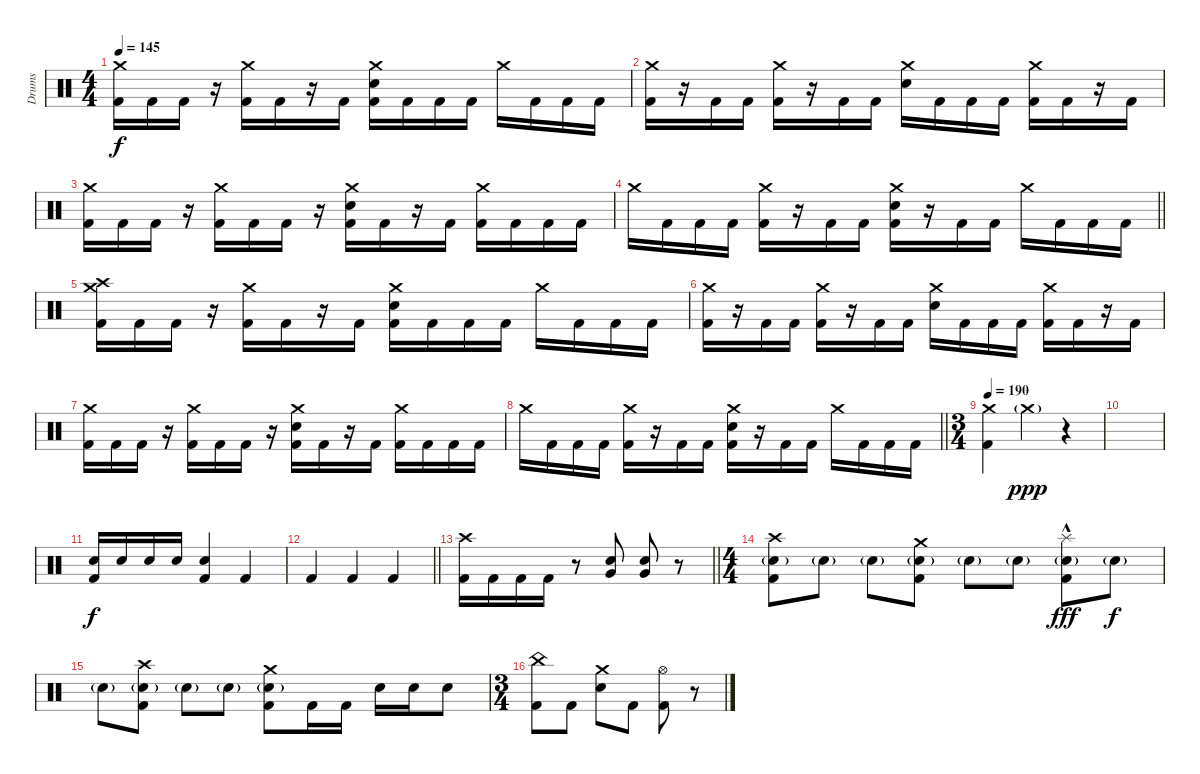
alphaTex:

\track ("Drums" "Drums") {instrument percussion}
\staff {score}
\articulation defaults
\ts (4 4)
\tempo 145
\clef neutral
\ks c
("Crash medium (hit)" "Kick (hit) 2").16{dy f} "Kick (hit) 2".16 "Kick (hit) 2".16 r.16 ("Crash medium (hit)" "Kick (hit) 2").16 "Kick (hit) 2".16 r.16 "Kick (hit) 2".16 ("Crash medium (hit)" "Electric Snare (hit)" "Kick (hit) 2").16 "Kick (hit) 2".16 "Kick (hit) 2".16 "Kick (hit) 2".16 "Crash medium (hit)".16 "Kick (hit) 2".16 "Kick (hit) 2".16 "Kick (hit) 2".16 |
("Crash medium (hit)" "Kick (hit) 2").16 r.16 "Kick (hit) 2".16 "Kick (hit) 2".16 ("Crash medium (hit)" "Kick (hit) 2").16 r.16 "Kick (hit) 2".16 "Kick (hit) 2".16 ("Crash medium (hit)" "Electric Snare (hit)").16 "Kick (hit) 2".16 "Kick (hit) 2".16 "Kick (hit) 2".16 ("Crash medium (hit)" "Kick (hit) 2").16 "Kick (hit) 2".16 r.16 "Kick (hit) 2".16 |
("Crash medium (hit)" "Kick (hit) 2").16 "Kick (hit) 2".16 "Kick (hit) 2".16 r.16 ("Crash medium (hit)" "Kick (hit) 2").16 "Kick (hit) 2".16 "Kick (hit) 2".16 r.16 ("Crash medium (hit)" "Electric Snare (hit)" "Kick (hit) 2").16 "Kick (hit) 2".16 r.16 "Kick (hit) 2".16 ("Crash medium (hit)" "Kick (hit) 2").16 "Kick (hit) 2".16 "Kick (hit) 2".16 "Kick (hit) 2".16 |
\barLineRight lightlight "Crash medium (hit)".16 "Kick (hit) 2".16 "Kick (hit) 2".16 "Kick (hit) 2".16
("Crash medium (hit)" "Kick (hit) 2").16 r.16 "Kick (hit) 2".16 "Kick (hit) 2".16 ("Crash medium (hit)" "Electric Snare (hit)" "Kick (hit) 2").16 r.16 "Kick (hit) 2".16 "Kick (hit) 2".16 "Crash medium (hit)".16 "Kick (hit) 2".16 "Kick (hit) 2".16 "Kick (hit) 2".16 |
("Crash medium (hit)" "Crash high (hit)" "Kick (hit) 2").16 "Kick (hit) 2".16 "Kick (hit) 2".16 r.16 ("Crash medium (hit)" "Kick (hit) 2").16 "Kick (hit) 2".16 r.16 "Kick (hit) 2".16 ("Crash medium (hit)" "Electric Snare (hit)" "Kick (hit) 2").16 "Kick (hit) 2".16 "Kick (hit) 2".16 "Kick (hit) 2".16 "Crash medium (hit)".16 "Kick (hit) 2".16 "Kick (hit) 2".16 "Kick (hit) 2".16 |
("Crash medium (hit)" "Kick (hit) 2").16 r.16 "Kick (hit) 2".16 "Kick (hit) 2".16 ("Crash medium (hit)" "Kick (hit) 2").16 r.16 "Kick (hit) 2".16 "Kick (hit) 2".16 ("Crash medium (hit)" "Electric Snare (hit)").16 "Kick (hit) 2".16 "Kick (hit) 2".16 "Kick (hit) 2".16 ("Crash medium (hit)" "Kick (hit) 2").16 "Kick (hit) 2".16 r.16 "Kick (hit) 2".16 |
("Crash medium (hit)" "Kick (hit) 2").16 "Kick (hit) 2".16 "Kick (hit) 2".16 r.16 ("Crash medium (hit)" "Kick (hit) 2").16 "Kick (hit) 2".16 "Kick (hit) 2".16 r.16 ("Crash medium (hit)" "Electric Snare (hit)" "Kick (hit) 2").16 "Kick (hit) 2".16 r.16 "Kick (hit) 2".16 ("Crash medium (hit)" "Kick (hit) 2").16 "Kick (hit) 2".16 "Kick (hit) 2".16 "Kick (hit) 2".16 |
\barLineRight lightlight "Crash medium (hit)".16 "Kick (hit) 2".16 "Kick (hit) 2".16 "Kick (hit) 2".16
("Crash medium (hit)" "Kick (hit) 2").16 r.16 "Kick (hit) 2".16 "Kick (hit) 2".16 ("Crash medium (hit)" "Electric Snare (hit)" "Kick (hit) 2").16 r.16 "Kick (hit) 2".16 "Kick (hit) 2".16 "Crash medium (hit)".16 "Kick (hit) 2".16 "Kick (hit) 2".16 "Kick (hit) 2".16 |
\ts (3 4)
\tempo 190
("Crash medium (hit)" "Kick (hit) 2").4 "Crash medium (hit)"{g}.4{dy ppp} r.4 |
|
("Electric Snare (hit)" "Kick (hit) 2").16{dy f} "Electric Snare (hit)".16 "Electric Snare (hit)".16 "Electric Snare (hit)".16 ("Electric Snare (hit)" "Kick (hit) 2").4 "Kick (hit) 2".4 |
\barLineRight lightlight "Kick (hit) 2".4 "Kick (hit) 2".4 "Kick (hit) 2".4
|
\barLineRight lightlight
("Crash high (hit)" "Kick (hit) 2").16 "Kick (hit) 2".16 "Kick (hit) 2".16 "Kick (hit) 2".16 r.8 ("Electric Snare (hit)" "Very Low Tom (hit)").8 ("Electric Snare (hit)" "Very Low Tom (hit)").8 r.8 |
\ts (4 4)
("Crash high (hit)" "Electric Snare (hit)"{g} "Kick (hit) 2").8 "Electric Snare (hit)"{g}.8 "Electric Snare (hit)"{g}.8 ("Crash medium (hit)" "Electric Snare (hit)"{g} "Kick (hit) 2").8 "Electric Snare (hit)"{g}.8 "Electric Snare (hit)"{g}.8 ("Splash (hit)"{hac} "Electric Snare (hit)"{g} "Kick (hit) 2").8{dy fff} "Electric Snare (hit)"{g}.8{dy f} |
"Electric Snare (hit)"{g}.8 ("Crash high (hit)" "Electric Snare (hit)"{g} "Kick (hit) 2").8 "Electric Snare (hit)"{g}.8 "Electric Snare (hit)"{g}.8 ("Crash medium (hit)" "Electric Snare (hit)"{g} "Kick (hit) 2").8 "Kick (hit) 2".16 "Kick (hit) 2".16 "Electric Snare (hit)".16 "Electric Snare (hit)".16 "Electric Snare (hit)".8 |
\ts (3 4)
("China (hit)" "Kick (hit) 2").8 "Kick (hit) 2".8 ("Crash medium (hit)" "Electric Snare (hit)").8 "Kick (hit) 2".8 ("Hi-Hat (open)" "Kick (hit) 2").8 r.8
